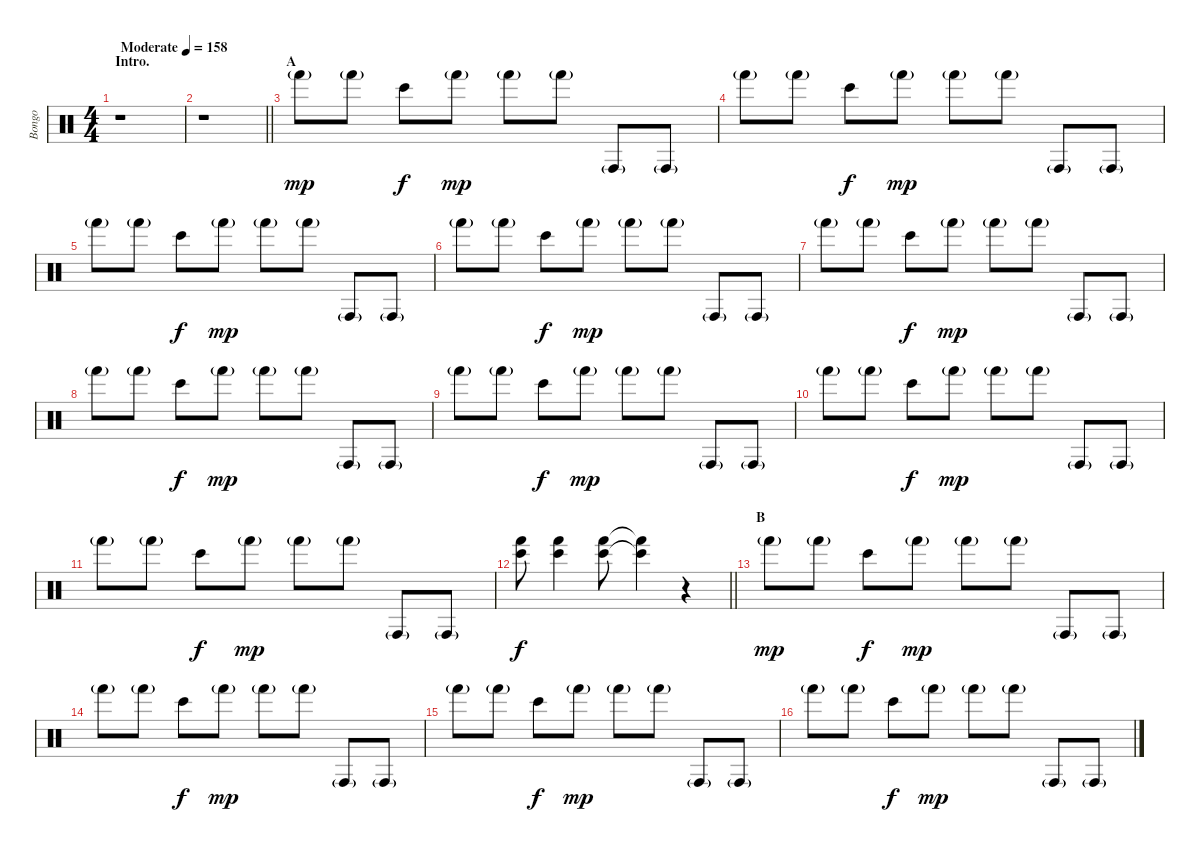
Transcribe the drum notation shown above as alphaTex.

\track ("Bongo" "Bongo") {instrument percussion}
\staff {score}
\articulation defaults
\ts (4 4)
\section ("" "Intro.")
\tempo (158 "Moderate")
\clef neutral
\ks c
r.1{dy mp} |
\barLineRight lightlight
r.1 |
\section ("" "A")
"Hand (hit)"{g}.8 "Hand (hit)"{g}.8 "Bongo High (hit)".8{dy f} "Hand (hit)"{g}.8{dy mp} "Hand (hit)"{g}.8 "Hand (hit)"{g}.8 "Conga high (hit)"{g}.8 "Conga high (hit)"{g}.8 |
"Hand (hit)"{g}.8 "Hand (hit)"{g}.8 "Bongo High (hit)".8{dy f} "Hand (hit)"{g}.8{dy mp} "Hand (hit)"{g}.8 "Hand (hit)"{g}.8 "Conga high (hit)"{g}.8 "Conga high (hit)"{g}.8 |
"Hand (hit)"{g}.8 "Hand (hit)"{g}.8 "Bongo High (hit)".8{dy f} "Hand (hit)"{g}.8{dy mp} "Hand (hit)"{g}.8 "Hand (hit)"{g}.8 "Conga high (hit)"{g}.8 "Conga high (hit)"{g}.8 |
"Hand (hit)"{g}.8 "Hand (hit)"{g}.8 "Bongo High (hit)".8{dy f} "Hand (hit)"{g}.8{dy mp} "Hand (hit)"{g}.8 "Hand (hit)"{g}.8 "Conga high (hit)"{g}.8 "Conga high (hit)"{g}.8 |
"Hand (hit)"{g}.8 "Hand (hit)"{g}.8 "Bongo High (hit)".8{dy f} "Hand (hit)"{g}.8{dy mp} "Hand (hit)"{g}.8 "Hand (hit)"{g}.8 "Conga high (hit)"{g}.8 "Conga high (hit)"{g}.8 |
"Hand (hit)"{g}.8 "Hand (hit)"{g}.8 "Bongo High (hit)".8{dy f} "Hand (hit)"{g}.8{dy mp} "Hand (hit)"{g}.8 "Hand (hit)"{g}.8 "Conga high (hit)"{g}.8 "Conga high (hit)"{g}.8 |
"Hand (hit)"{g}.8 "Hand (hit)"{g}.8 "Bongo High (hit)".8{dy f} "Hand (hit)"{g}.8{dy mp} "Hand (hit)"{g}.8 "Hand (hit)"{g}.8 "Conga high (hit)"{g}.8 "Conga high (hit)"{g}.8 |
"Hand (hit)"{g}.8 "Hand (hit)"{g}.8 "Bongo High (hit)".8{dy f} "Hand (hit)"{g}.8{dy mp} "Hand (hit)"{g}.8 "Hand (hit)"{g}.8 "Conga high (hit)"{g}.8 "Conga high (hit)"{g}.8 |
"Hand (hit)"{g}.8 "Hand (hit)"{g}.8 "Bongo High (hit)".8{dy f} "Hand (hit)"{g}.8{dy mp} "Hand (hit)"{g}.8 "Hand (hit)"{g}.8 "Conga high (hit)"{g}.8 "Conga high (hit)"{g}.8 |
\barLineRight lightlight
("Bongo High (hit)" "Hand (hit)").8{dy f} ("Bongo High (hit)" "Hand (hit)").4 ("Bongo High (hit)" "Hand (hit)").8 ("Bongo High (hit)"{t} "Hand (hit)"{t}).4 r.4 |
\section ("" "B")
"Hand (hit)"{g}.8{dy mp} "Hand (hit)"{g}.8 "Bongo High (hit)".8{dy f} "Hand (hit)"{g}.8{dy mp} "Hand (hit)"{g}.8 "Hand (hit)"{g}.8 "Conga high (hit)"{g}.8 "Conga high (hit)"{g}.8 |
"Hand (hit)"{g}.8 "Hand (hit)"{g}.8 "Bongo High (hit)".8{dy f} "Hand (hit)"{g}.8{dy mp} "Hand (hit)"{g}.8 "Hand (hit)"{g}.8 "Conga high (hit)"{g}.8 "Conga high (hit)"{g}.8 |
"Hand (hit)"{g}.8 "Hand (hit)"{g}.8 "Bongo High (hit)".8{dy f} "Hand (hit)"{g}.8{dy mp} "Hand (hit)"{g}.8 "Hand (hit)"{g}.8 "Conga high (hit)"{g}.8 "Conga high (hit)"{g}.8 |
"Hand (hit)"{g}.8 "Hand (hit)"{g}.8 "Bongo High (hit)".8{dy f} "Hand (hit)"{g}.8{dy mp} "Hand (hit)"{g}.8 "Hand (hit)"{g}.8 "Conga high (hit)"{g}.8 "Conga high (hit)"{g}.8
